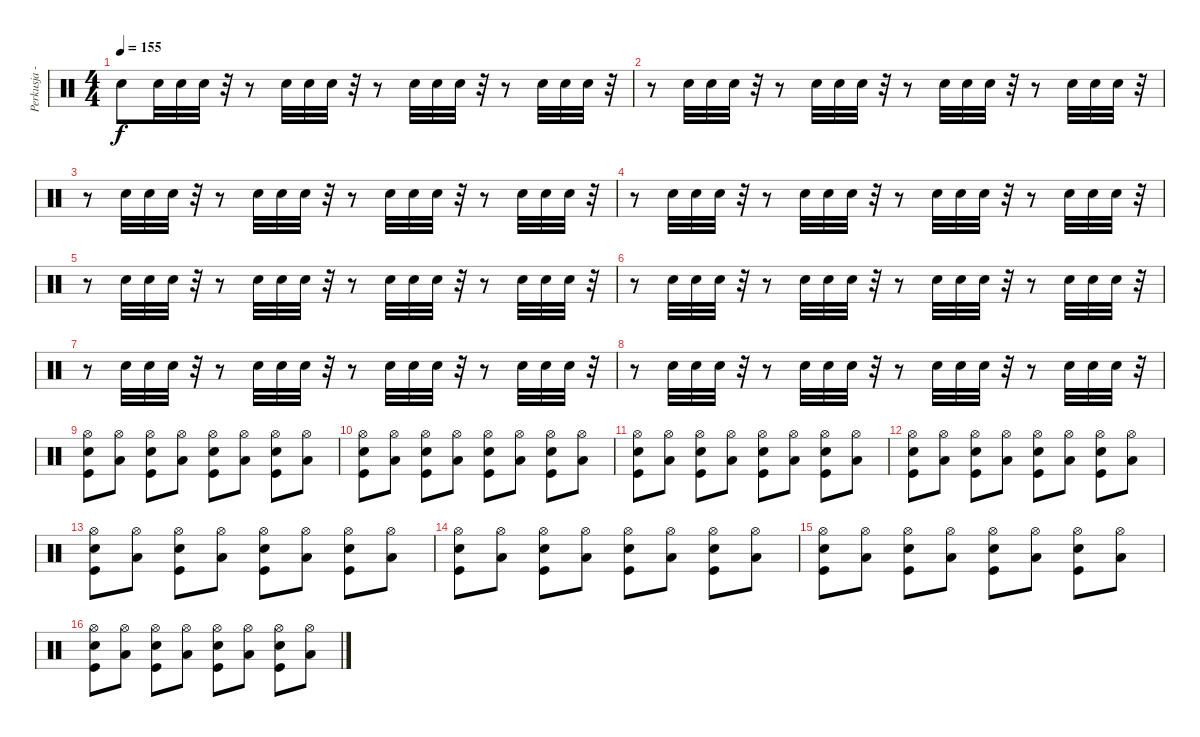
\track ("Perkusja - Mielony" "Perkusja -") {instrument percussion}
\staff {score}
\articulation defaults
\ts (4 4)
\tempo 155
\clef neutral
\ks c "Snare (hit) 2".8{dy f} "Snare (hit) 2".32 "Snare (hit) 2".32 "Snare (hit) 2".32
r.32 r.8 "Snare (hit) 2".32 "Snare (hit) 2".32 "Snare (hit) 2".32 r.32 r.8 "Snare (hit) 2".32 "Snare (hit) 2".32 "Snare (hit) 2".32 r.32 r.8 "Snare (hit) 2".32 "Snare (hit) 2".32 "Snare (hit) 2".32 r.32 |
r.8 "Snare (hit) 2".32 "Snare (hit) 2".32 "Snare (hit) 2".32 r.32 r.8 "Snare (hit) 2".32 "Snare (hit) 2".32 "Snare (hit) 2".32 r.32 r.8 "Snare (hit) 2".32 "Snare (hit) 2".32 "Snare (hit) 2".32 r.32 r.8 "Snare (hit) 2".32 "Snare (hit) 2".32 "Snare (hit) 2".32 r.32 |
r.8 "Snare (hit) 2".32 "Snare (hit) 2".32 "Snare (hit) 2".32 r.32 r.8 "Snare (hit) 2".32 "Snare (hit) 2".32 "Snare (hit) 2".32 r.32 r.8 "Snare (hit) 2".32 "Snare (hit) 2".32 "Snare (hit) 2".32 r.32 r.8 "Snare (hit) 2".32 "Snare (hit) 2".32 "Snare (hit) 2".32 r.32 |
r.8 "Snare (hit) 2".32 "Snare (hit) 2".32 "Snare (hit) 2".32 r.32 r.8 "Snare (hit) 2".32 "Snare (hit) 2".32 "Snare (hit) 2".32 r.32 r.8 "Snare (hit) 2".32 "Snare (hit) 2".32 "Snare (hit) 2".32 r.32 r.8 "Snare (hit) 2".32 "Snare (hit) 2".32 "Snare (hit) 2".32 r.32 |
r.8 "Snare (hit) 2".32 "Snare (hit) 2".32 "Snare (hit) 2".32 r.32 r.8 "Snare (hit) 2".32 "Snare (hit) 2".32 "Snare (hit) 2".32 r.32 r.8 "Snare (hit) 2".32 "Snare (hit) 2".32 "Snare (hit) 2".32 r.32 r.8 "Snare (hit) 2".32 "Snare (hit) 2".32 "Snare (hit) 2".32 r.32 |
r.8 "Snare (hit) 2".32 "Snare (hit) 2".32 "Snare (hit) 2".32 r.32 r.8 "Snare (hit) 2".32 "Snare (hit) 2".32 "Snare (hit) 2".32 r.32 r.8 "Snare (hit) 2".32 "Snare (hit) 2".32 "Snare (hit) 2".32 r.32 r.8 "Snare (hit) 2".32 "Snare (hit) 2".32 "Snare (hit) 2".32 r.32 |
r.8 "Snare (hit) 2".32 "Snare (hit) 2".32 "Snare (hit) 2".32 r.32 r.8 "Snare (hit) 2".32 "Snare (hit) 2".32 "Snare (hit) 2".32 r.32 r.8 "Snare (hit) 2".32 "Snare (hit) 2".32 "Snare (hit) 2".32 r.32 r.8 "Snare (hit) 2".32 "Snare (hit) 2".32 "Snare (hit) 2".32 r.32 |
r.8 "Snare (hit) 2".32 "Snare (hit) 2".32 "Snare (hit) 2".32 r.32 r.8 "Snare (hit) 2".32 "Snare (hit) 2".32 "Snare (hit) 2".32 r.32 r.8 "Snare (hit) 2".32 "Snare (hit) 2".32 "Snare (hit) 2".32 r.32 r.8 "Snare (hit) 2".32 "Snare (hit) 2".32 "Snare (hit) 2".32 r.32 |
("Snare (hit) 2" "Hi-Hat (open)" "Kick (hit)").8 ("Hi-Hat (open)" "Low Tom (hit)").8 ("Snare (hit) 2" "Hi-Hat (open)" "Kick (hit)").8 ("Hi-Hat (open)" "Low Tom (hit)").8 ("Snare (hit) 2" "Hi-Hat (open)" "Kick (hit)").8 ("Hi-Hat (open)" "Low Tom (hit)").8 ("Snare (hit) 2" "Hi-Hat (open)" "Kick (hit)").8 ("Hi-Hat (open)" "Low Tom (hit)").8 |
("Snare (hit) 2" "Hi-Hat (open)" "Kick (hit)").8 ("Hi-Hat (open)" "Low Tom (hit)").8 ("Snare (hit) 2" "Hi-Hat (open)" "Kick (hit)").8 ("Hi-Hat (open)" "Low Tom (hit)").8 ("Snare (hit) 2" "Hi-Hat (open)" "Kick (hit)").8 ("Hi-Hat (open)" "Low Tom (hit)").8 ("Snare (hit) 2" "Hi-Hat (open)" "Kick (hit)").8 ("Hi-Hat (open)" "Low Tom (hit)").8 |
("Snare (hit) 2" "Hi-Hat (open)" "Kick (hit)").8 ("Hi-Hat (open)" "Low Tom (hit)").8 ("Snare (hit) 2" "Hi-Hat (open)" "Kick (hit)").8 ("Hi-Hat (open)" "Low Tom (hit)").8 ("Snare (hit) 2" "Hi-Hat (open)" "Kick (hit)").8 ("Hi-Hat (open)" "Low Tom (hit)").8 ("Snare (hit) 2" "Hi-Hat (open)" "Kick (hit)").8 ("Hi-Hat (open)" "Low Tom (hit)").8 |
("Snare (hit) 2" "Hi-Hat (open)" "Kick (hit)").8 ("Hi-Hat (open)" "Low Tom (hit)").8 ("Snare (hit) 2" "Hi-Hat (open)" "Kick (hit)").8 ("Hi-Hat (open)" "Low Tom (hit)").8 ("Snare (hit) 2" "Hi-Hat (open)" "Kick (hit)").8 ("Hi-Hat (open)" "Low Tom (hit)").8 ("Snare (hit) 2" "Hi-Hat (open)" "Kick (hit)").8 ("Hi-Hat (open)" "Low Tom (hit)").8 |
("Snare (hit) 2" "Hi-Hat (open)" "Kick (hit)").8 ("Hi-Hat (open)" "Low Tom (hit)").8 ("Snare (hit) 2" "Hi-Hat (open)" "Kick (hit)").8 ("Hi-Hat (open)" "Low Tom (hit)").8 ("Snare (hit) 2" "Hi-Hat (open)" "Kick (hit)").8 ("Hi-Hat (open)" "Low Tom (hit)").8 ("Snare (hit) 2" "Hi-Hat (open)" "Kick (hit)").8 ("Hi-Hat (open)" "Low Tom (hit)").8 |
("Snare (hit) 2" "Hi-Hat (open)" "Kick (hit)").8 ("Hi-Hat (open)" "Low Tom (hit)").8 ("Snare (hit) 2" "Hi-Hat (open)" "Kick (hit)").8 ("Hi-Hat (open)" "Low Tom (hit)").8 ("Snare (hit) 2" "Hi-Hat (open)" "Kick (hit)").8 ("Hi-Hat (open)" "Low Tom (hit)").8 ("Snare (hit) 2" "Hi-Hat (open)" "Kick (hit)").8 ("Hi-Hat (open)" "Low Tom (hit)").8 |
("Snare (hit) 2" "Hi-Hat (open)" "Kick (hit)").8 ("Hi-Hat (open)" "Low Tom (hit)").8 ("Snare (hit) 2" "Hi-Hat (open)" "Kick (hit)").8 ("Hi-Hat (open)" "Low Tom (hit)").8 ("Snare (hit) 2" "Hi-Hat (open)" "Kick (hit)").8 ("Hi-Hat (open)" "Low Tom (hit)").8 ("Snare (hit) 2" "Hi-Hat (open)" "Kick (hit)").8 ("Hi-Hat (open)" "Low Tom (hit)").8 |
("Snare (hit) 2" "Hi-Hat (open)" "Kick (hit)").8 ("Hi-Hat (open)" "Low Tom (hit)").8 ("Snare (hit) 2" "Hi-Hat (open)" "Kick (hit)").8 ("Hi-Hat (open)" "Low Tom (hit)").8 ("Snare (hit) 2" "Hi-Hat (open)" "Kick (hit)").8 ("Hi-Hat (open)" "Low Tom (hit)").8 ("Snare (hit) 2" "Hi-Hat (open)" "Kick (hit)").8 ("Hi-Hat (open)" "Low Tom (hit)").8
